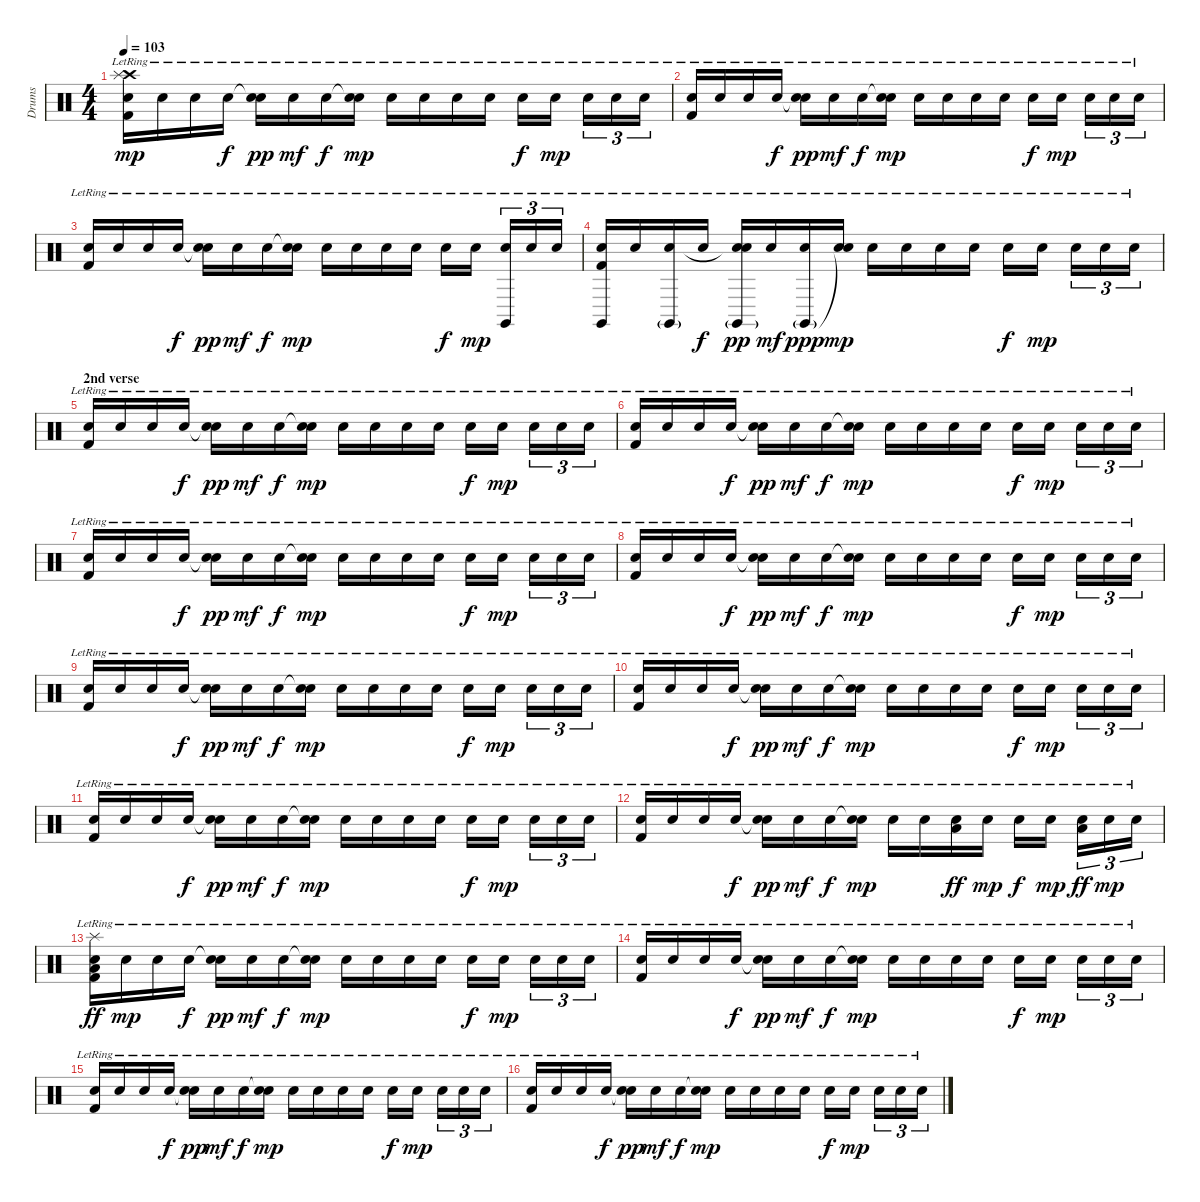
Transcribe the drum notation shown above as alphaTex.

\track ("Drums" "Drums") {instrument percussion}
\staff {score}
\articulation defaults
\ts (4 4)
\tempo 103
\clef neutral
\ks c
("Crash high (hit)"{lr} "Splash (hit)"{lr} "Snare (hit) 2"{lr} "Kick (hit) 2"{lr}).16{dy mp volume 11} "Snare (hit) 2"{lr}.16 "Snare (hit) 2"{lr}.16 "Electric Snare (hit)"{lr}.16{dy f} ("Snare (hit)"{t} "Snare (hit) 2"{lr}).16{dy pp} "Snare (hit) 2"{lr}.16{dy mf} "Electric Snare (hit)"{lr}.16{dy f} ("Snare (hit)"{t} "Snare (hit) 2"{lr}).16{dy mp} "Snare (hit) 2"{lr}.16 "Snare (hit) 2"{lr}.16 "Snare (hit) 2"{lr}.16 "Snare (hit) 2"{lr}.16 "Electric Snare (hit)"{lr}.16{dy f} "Snare (hit) 2"{lr}.16{dy mp} "Snare (hit) 2"{lr}.16{tu (3 2)} "Snare (hit) 2"{lr}.16{tu (3 2)} "Snare (hit) 2"{lr}.16{tu (3 2)} |
("Snare (hit) 2"{lr} "Kick (hit) 2"{lr}).16 "Snare (hit) 2"{lr}.16 "Snare (hit) 2"{lr}.16 "Electric Snare (hit)"{lr}.16{dy f} ("Snare (hit)"{t} "Snare (hit) 2"{lr}).16{dy pp} "Snare (hit) 2"{lr}.16{dy mf} "Electric Snare (hit)"{lr}.16{dy f} ("Snare (hit)"{t} "Snare (hit) 2"{lr}).16{dy mp} "Snare (hit) 2"{lr}.16 "Snare (hit) 2"{lr}.16 "Snare (hit) 2"{lr}.16 "Snare (hit) 2"{lr}.16 "Electric Snare (hit)"{lr}.16{dy f} "Snare (hit) 2"{lr}.16{dy mp} "Snare (hit) 2"{lr}.16{tu (3 2)} "Snare (hit) 2"{lr}.16{tu (3 2)} "Snare (hit) 2"{lr}.16{tu (3 2)} |
("Snare (hit) 2"{lr} "Kick (hit) 2"{lr}).16 "Snare (hit) 2"{lr}.16 "Snare (hit) 2"{lr}.16 "Electric Snare (hit)"{lr}.16{dy f} ("Snare (hit)"{t} "Snare (hit) 2"{lr}).16{dy pp} "Snare (hit) 2"{lr}.16{dy mf} "Electric Snare (hit)"{lr}.16{dy f} ("Snare (hit)"{t} "Snare (hit) 2"{lr}).16{dy mp} "Snare (hit) 2"{lr}.16 "Snare (hit) 2"{lr}.16 "Snare (hit) 2"{lr}.16 "Snare (hit) 2"{lr}.16 "Electric Snare (hit)"{lr}.16{dy f} "Snare (hit) 2"{lr}.16{dy mp} ("Claves (hit)"{lr} "Snare (hit) 2"{lr}).16{tu (3 2)} "Snare (hit) 2"{lr}.16{tu (3 2)} "Snare (hit) 2"{lr}.16{tu (3 2)} |
("Claves (hit)"{lr} "Snare (hit) 2"{lr} "Kick (hit) 2"{lr}).16 "Snare (hit) 2"{lr}.16 ("Claves (hit)"{g lr} "Snare (hit) 2"{lr}).16 "Electric Snare (hit)"{lr}.16{dy f} ("Claves (hit)"{g lr} "Snare (hit)"{t} "Snare (hit) 2"{lr}).16{dy pp} "Snare (hit) 2"{lr}.16{dy mf} ("Claves (hit)"{g lr} "Electric Snare (hit)"{lr}).16{dy ppp} ("Snare (hit)"{t} "Snare (hit) 2"{lr}).16{dy mp} "Snare (hit) 2"{lr}.16 "Snare (hit) 2"{lr}.16 "Snare (hit) 2"{lr}.16 "Snare (hit) 2"{lr}.16 "Electric Snare (hit)"{lr}.16{dy f} "Snare (hit) 2"{lr}.16{dy mp} "Snare (hit) 2"{lr}.16{tu (3 2)} "Snare (hit) 2"{lr}.16{tu (3 2)} "Snare (hit) 2"{lr}.16{tu (3 2)} |
\section ("" "2nd verse")
("Snare (hit) 2"{lr} "Kick (hit) 2"{lr}).16 "Snare (hit) 2"{lr}.16 "Snare (hit) 2"{lr}.16 "Electric Snare (hit)"{lr}.16{dy f} ("Snare (hit)"{t} "Snare (hit) 2"{lr}).16{dy pp} "Snare (hit) 2"{lr}.16{dy mf} "Electric Snare (hit)"{lr}.16{dy f} ("Snare (hit)"{t} "Snare (hit) 2"{lr}).16{dy mp} "Snare (hit) 2"{lr}.16 "Snare (hit) 2"{lr}.16 "Snare (hit) 2"{lr}.16 "Snare (hit) 2"{lr}.16 "Electric Snare (hit)"{lr}.16{dy f} "Snare (hit) 2"{lr}.16{dy mp} "Snare (hit) 2"{lr}.16{tu (3 2)} "Snare (hit) 2"{lr}.16{tu (3 2)} "Snare (hit) 2"{lr}.16{tu (3 2)} |
("Snare (hit) 2"{lr} "Kick (hit) 2"{lr}).16 "Snare (hit) 2"{lr}.16 "Snare (hit) 2"{lr}.16 "Electric Snare (hit)"{lr}.16{dy f} ("Snare (hit)"{t} "Snare (hit) 2"{lr}).16{dy pp} "Snare (hit) 2"{lr}.16{dy mf} "Electric Snare (hit)"{lr}.16{dy f} ("Snare (hit)"{t} "Snare (hit) 2"{lr}).16{dy mp} "Snare (hit) 2"{lr}.16 "Snare (hit) 2"{lr}.16 "Snare (hit) 2"{lr}.16 "Snare (hit) 2"{lr}.16 "Electric Snare (hit)"{lr}.16{dy f} "Snare (hit) 2"{lr}.16{dy mp} "Snare (hit) 2"{lr}.16{tu (3 2)} "Snare (hit) 2"{lr}.16{tu (3 2)} "Snare (hit) 2"{lr}.16{tu (3 2)} |
("Snare (hit) 2"{lr} "Kick (hit) 2"{lr}).16 "Snare (hit) 2"{lr}.16 "Snare (hit) 2"{lr}.16 "Electric Snare (hit)"{lr}.16{dy f} ("Snare (hit)"{t} "Snare (hit) 2"{lr}).16{dy pp} "Snare (hit) 2"{lr}.16{dy mf} "Electric Snare (hit)"{lr}.16{dy f} ("Snare (hit)"{t} "Snare (hit) 2"{lr}).16{dy mp} "Snare (hit) 2"{lr}.16 "Snare (hit) 2"{lr}.16 "Snare (hit) 2"{lr}.16 "Snare (hit) 2"{lr}.16 "Electric Snare (hit)"{lr}.16{dy f} "Snare (hit) 2"{lr}.16{dy mp} "Snare (hit) 2"{lr}.16{tu (3 2)} "Snare (hit) 2"{lr}.16{tu (3 2)} "Snare (hit) 2"{lr}.16{tu (3 2)} |
("Snare (hit) 2"{lr} "Kick (hit) 2"{lr}).16 "Snare (hit) 2"{lr}.16 "Snare (hit) 2"{lr}.16 "Electric Snare (hit)"{lr}.16{dy f} ("Snare (hit)"{t} "Snare (hit) 2"{lr}).16{dy pp} "Snare (hit) 2"{lr}.16{dy mf} "Electric Snare (hit)"{lr}.16{dy f} ("Snare (hit)"{t} "Snare (hit) 2"{lr}).16{dy mp} "Snare (hit) 2"{lr}.16 "Snare (hit) 2"{lr}.16 "Snare (hit) 2"{lr}.16 "Snare (hit) 2"{lr}.16 "Electric Snare (hit)"{lr}.16{dy f} "Snare (hit) 2"{lr}.16{dy mp} "Snare (hit) 2"{lr}.16{tu (3 2)} "Snare (hit) 2"{lr}.16{tu (3 2)} "Snare (hit) 2"{lr}.16{tu (3 2)} |
("Snare (hit) 2"{lr} "Kick (hit) 2"{lr}).16 "Snare (hit) 2"{lr}.16 "Snare (hit) 2"{lr}.16 "Electric Snare (hit)"{lr}.16{dy f} ("Snare (hit)"{t} "Snare (hit) 2"{lr}).16{dy pp} "Snare (hit) 2"{lr}.16{dy mf} "Electric Snare (hit)"{lr}.16{dy f} ("Snare (hit)"{t} "Snare (hit) 2"{lr}).16{dy mp} "Snare (hit) 2"{lr}.16 "Snare (hit) 2"{lr}.16 "Snare (hit) 2"{lr}.16 "Snare (hit) 2"{lr}.16 "Electric Snare (hit)"{lr}.16{dy f} "Snare (hit) 2"{lr}.16{dy mp} "Snare (hit) 2"{lr}.16{tu (3 2)} "Snare (hit) 2"{lr}.16{tu (3 2)} "Snare (hit) 2"{lr}.16{tu (3 2)} |
("Snare (hit) 2"{lr} "Kick (hit) 2"{lr}).16 "Snare (hit) 2"{lr}.16 "Snare (hit) 2"{lr}.16 "Electric Snare (hit)"{lr}.16{dy f} ("Snare (hit)"{t} "Snare (hit) 2"{lr}).16{dy pp} "Snare (hit) 2"{lr}.16{dy mf} "Electric Snare (hit)"{lr}.16{dy f} ("Snare (hit)"{t} "Snare (hit) 2"{lr}).16{dy mp} "Snare (hit) 2"{lr}.16 "Snare (hit) 2"{lr}.16 "Snare (hit) 2"{lr}.16 "Snare (hit) 2"{lr}.16 "Electric Snare (hit)"{lr}.16{dy f} "Snare (hit) 2"{lr}.16{dy mp} "Snare (hit) 2"{lr}.16{tu (3 2)} "Snare (hit) 2"{lr}.16{tu (3 2)} "Snare (hit) 2"{lr}.16{tu (3 2)} |
("Snare (hit) 2"{lr} "Kick (hit) 2"{lr}).16 "Snare (hit) 2"{lr}.16 "Snare (hit) 2"{lr}.16 "Electric Snare (hit)"{lr}.16{dy f} ("Snare (hit)"{t} "Snare (hit) 2"{lr}).16{dy pp} "Snare (hit) 2"{lr}.16{dy mf} "Electric Snare (hit)"{lr}.16{dy f} ("Snare (hit)"{t} "Snare (hit) 2"{lr}).16{dy mp} "Snare (hit) 2"{lr}.16 "Snare (hit) 2"{lr}.16 "Snare (hit) 2"{lr}.16 "Snare (hit) 2"{lr}.16 "Electric Snare (hit)"{lr}.16{dy f} "Snare (hit) 2"{lr}.16{dy mp} "Snare (hit) 2"{lr}.16{tu (3 2)} "Snare (hit) 2"{lr}.16{tu (3 2)} "Snare (hit) 2"{lr}.16{tu (3 2)} |
("Snare (hit) 2"{lr} "Kick (hit) 2"{lr}).16 "Snare (hit) 2"{lr}.16 "Snare (hit) 2"{lr}.16 "Electric Snare (hit)"{lr}.16{dy f} ("Snare (hit)"{t} "Snare (hit) 2"{lr}).16{dy pp} "Snare (hit) 2"{lr}.16{dy mf} "Electric Snare (hit)"{lr}.16{dy f} ("Snare (hit)"{t} "Snare (hit) 2"{lr}).16{dy mp} "Snare (hit) 2"{lr}.16 "Snare (hit) 2"{lr}.16 ("Snare (hit) 2"{lr} "Low Floor Tom (hit)"{lr}).16{dy ff} "Snare (hit) 2"{lr}.16{dy mp} "Electric Snare (hit)"{lr}.16{dy f} "Snare (hit) 2"{lr}.16{dy mp} ("Snare (hit) 2"{lr} "Low Tom (hit)"{lr}).16{tu (3 2) dy ff} "Snare (hit) 2"{lr}.16{tu (3 2) dy mp} "Snare (hit) 2"{lr}.16{tu (3 2)} |
("Splash (hit)"{lr} "Snare (hit) 2"{lr} "Low Floor Tom (hit)"{lr} "Kick (hit) 2"{lr}).16{dy ff} "Snare (hit) 2"{lr}.16{dy mp} "Snare (hit) 2"{lr}.16 "Electric Snare (hit)"{lr}.16{dy f} ("Snare (hit)"{t} "Snare (hit) 2"{lr}).16{dy pp} "Snare (hit) 2"{lr}.16{dy mf} "Electric Snare (hit)"{lr}.16{dy f} ("Snare (hit)"{t} "Snare (hit) 2"{lr}).16{dy mp} "Snare (hit) 2"{lr}.16 "Snare (hit) 2"{lr}.16 "Snare (hit) 2"{lr}.16 "Snare (hit) 2"{lr}.16 "Electric Snare (hit)"{lr}.16{dy f} "Snare (hit) 2"{lr}.16{dy mp} "Snare (hit) 2"{lr}.16{tu (3 2)} "Snare (hit) 2"{lr}.16{tu (3 2)} "Snare (hit) 2"{lr}.16{tu (3 2)} |
("Snare (hit) 2"{lr} "Kick (hit) 2"{lr}).16 "Snare (hit) 2"{lr}.16 "Snare (hit) 2"{lr}.16 "Electric Snare (hit)"{lr}.16{dy f} ("Snare (hit)"{t} "Snare (hit) 2"{lr}).16{dy pp} "Snare (hit) 2"{lr}.16{dy mf} "Electric Snare (hit)"{lr}.16{dy f} ("Snare (hit)"{t} "Snare (hit) 2"{lr}).16{dy mp} "Snare (hit) 2"{lr}.16 "Snare (hit) 2"{lr}.16 "Snare (hit) 2"{lr}.16 "Snare (hit) 2"{lr}.16 "Electric Snare (hit)"{lr}.16{dy f} "Snare (hit) 2"{lr}.16{dy mp} "Snare (hit) 2"{lr}.16{tu (3 2)} "Snare (hit) 2"{lr}.16{tu (3 2)} "Snare (hit) 2"{lr}.16{tu (3 2)} |
("Snare (hit) 2"{lr} "Kick (hit) 2"{lr}).16 "Snare (hit) 2"{lr}.16 "Snare (hit) 2"{lr}.16 "Electric Snare (hit)"{lr}.16{dy f} ("Snare (hit)"{t} "Snare (hit) 2"{lr}).16{dy pp} "Snare (hit) 2"{lr}.16{dy mf} "Electric Snare (hit)"{lr}.16{dy f} ("Snare (hit)"{t} "Snare (hit) 2"{lr}).16{dy mp} "Snare (hit) 2"{lr}.16 "Snare (hit) 2"{lr}.16 "Snare (hit) 2"{lr}.16 "Snare (hit) 2"{lr}.16 "Electric Snare (hit)"{lr}.16{dy f} "Snare (hit) 2"{lr}.16{dy mp} "Snare (hit) 2"{lr}.16{tu (3 2)} "Snare (hit) 2"{lr}.16{tu (3 2)} "Snare (hit) 2"{lr}.16{tu (3 2)} |
("Snare (hit) 2"{lr} "Kick (hit) 2"{lr}).16 "Snare (hit) 2"{lr}.16 "Snare (hit) 2"{lr}.16 "Electric Snare (hit)"{lr}.16{dy f} ("Snare (hit)"{t} "Snare (hit) 2"{lr}).16{dy pp} "Snare (hit) 2"{lr}.16{dy mf} "Electric Snare (hit)"{lr}.16{dy f} ("Snare (hit)"{t} "Snare (hit) 2"{lr}).16{dy mp} "Snare (hit) 2"{lr}.16 "Snare (hit) 2"{lr}.16 "Snare (hit) 2"{lr}.16 "Snare (hit) 2"{lr}.16 "Electric Snare (hit)"{lr}.16{dy f} "Snare (hit) 2"{lr}.16{dy mp} "Snare (hit) 2"{lr}.16{tu (3 2)} "Snare (hit) 2"{lr}.16{tu (3 2)} "Snare (hit) 2"{lr}.16{tu (3 2)}
